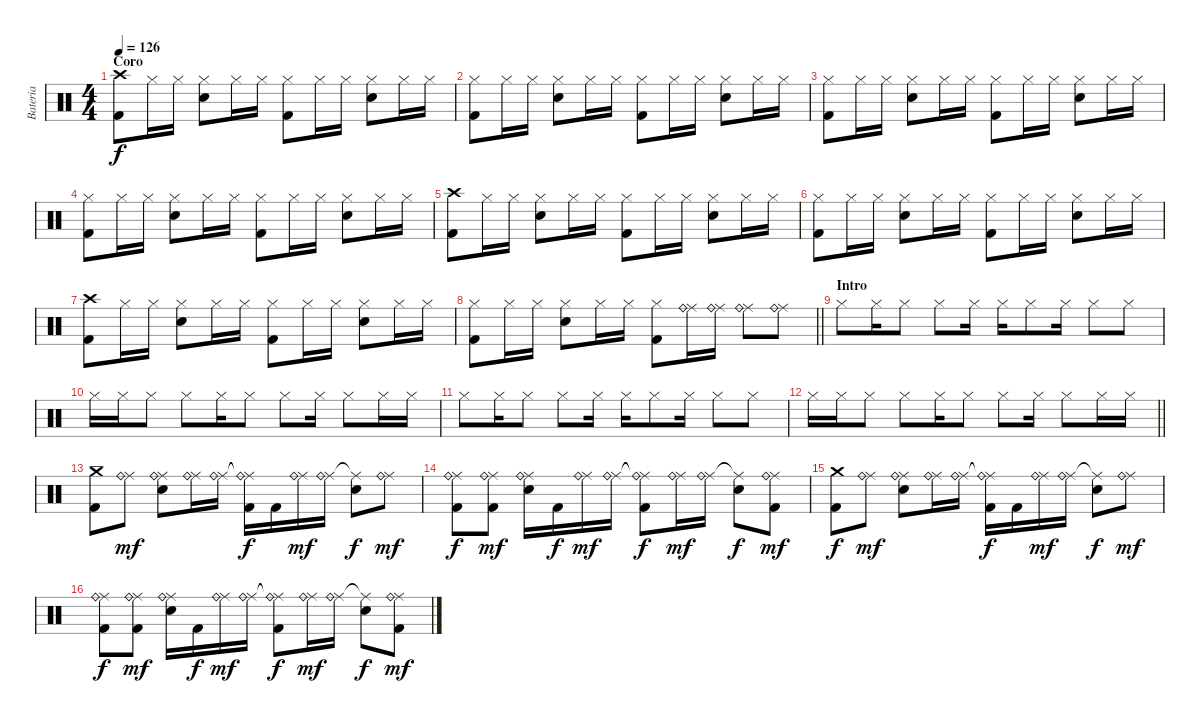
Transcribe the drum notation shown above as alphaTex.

\track ("Bateria" "Bateria") {instrument percussion}
\staff {score}
\articulation defaults
\ts (4 4)
\section ("" "Coro")
\tempo 126
\clef neutral
\ks c
("Crash high (hit)" "Kick (hit) 2").8{dy f} "Hi-Hat (closed)".16 "Hi-Hat (closed)".16 ("Hi-Hat (closed)" "Electric Snare (hit)").8 "Hi-Hat (closed)".16 "Hi-Hat (closed)".16 ("Hi-Hat (closed)" "Kick (hit) 2").8 "Hi-Hat (closed)".16 "Hi-Hat (closed)".16 ("Hi-Hat (closed)" "Electric Snare (hit)").8 "Hi-Hat (closed)".16 "Hi-Hat (closed)".16 |
("Hi-Hat (closed)" "Kick (hit) 2").8 "Hi-Hat (closed)".16 "Hi-Hat (closed)".16 ("Hi-Hat (closed)" "Electric Snare (hit)").8 "Hi-Hat (closed)".16 "Hi-Hat (closed)".16 ("Hi-Hat (closed)" "Kick (hit) 2").8 "Hi-Hat (closed)".16 "Hi-Hat (closed)".16 ("Hi-Hat (closed)" "Electric Snare (hit)").8 "Hi-Hat (closed)".16 "Hi-Hat (closed)".16 |
("Hi-Hat (closed)" "Kick (hit) 2").8 "Hi-Hat (closed)".16 "Hi-Hat (closed)".16 ("Hi-Hat (closed)" "Electric Snare (hit)").8 "Hi-Hat (closed)".16 "Hi-Hat (closed)".16 ("Hi-Hat (closed)" "Kick (hit) 2").8 "Hi-Hat (closed)".16 "Hi-Hat (closed)".16 ("Hi-Hat (closed)" "Electric Snare (hit)").8 "Hi-Hat (closed)".16 "Hi-Hat (closed)".16 |
("Hi-Hat (closed)" "Kick (hit) 2").8 "Hi-Hat (closed)".16 "Hi-Hat (closed)".16 ("Hi-Hat (closed)" "Electric Snare (hit)").8 "Hi-Hat (closed)".16 "Hi-Hat (closed)".16 ("Hi-Hat (closed)" "Kick (hit) 2").8 "Hi-Hat (closed)".16 "Hi-Hat (closed)".16 ("Hi-Hat (closed)" "Electric Snare (hit)").8 "Hi-Hat (closed)".16 "Hi-Hat (closed)".16 |
("Crash high (hit)" "Kick (hit) 2").8 "Hi-Hat (closed)".16 "Hi-Hat (closed)".16 ("Hi-Hat (closed)" "Electric Snare (hit)").8 "Hi-Hat (closed)".16 "Hi-Hat (closed)".16 ("Hi-Hat (closed)" "Kick (hit) 2").8 "Hi-Hat (closed)".16 "Hi-Hat (closed)".16 ("Hi-Hat (closed)" "Electric Snare (hit)").8 "Hi-Hat (closed)".16 "Hi-Hat (closed)".16 |
("Hi-Hat (closed)" "Kick (hit) 2").8 "Hi-Hat (closed)".16 "Hi-Hat (closed)".16 ("Hi-Hat (closed)" "Electric Snare (hit)").8 "Hi-Hat (closed)".16 "Hi-Hat (closed)".16 ("Hi-Hat (closed)" "Kick (hit) 2").8 "Hi-Hat (closed)".16 "Hi-Hat (closed)".16 ("Hi-Hat (closed)" "Electric Snare (hit)").8 "Hi-Hat (closed)".16 "Hi-Hat (closed)".16 |
("Crash high (hit)" "Kick (hit) 2").8 "Hi-Hat (closed)".16 "Hi-Hat (closed)".16 ("Hi-Hat (closed)" "Electric Snare (hit)").8 "Hi-Hat (closed)".16 "Hi-Hat (closed)".16 ("Hi-Hat (closed)" "Kick (hit) 2").8 "Hi-Hat (closed)".16 "Hi-Hat (closed)".16 ("Hi-Hat (closed)" "Electric Snare (hit)").8 "Hi-Hat (closed)".16 "Hi-Hat (closed)".16 |
\barLineRight lightlight
("Hi-Hat (closed)" "Kick (hit) 2").8 "Hi-Hat (closed)".16 "Hi-Hat (closed)".16 ("Hi-Hat (closed)" "Electric Snare (hit)").8 "Hi-Hat (closed)".16 "Hi-Hat (closed)".16 ("Hi-Hat (closed)" "Kick (hit) 2").8 ("Ride (middle)" "Ride (bell)").16 ("Ride (middle)" "Ride (bell)").16 ("Ride (middle)" "Ride (bell)").8 ("Ride (middle)" "Ride (bell)").8 |
\section ("" "Intro")
"Hi-Hat (closed)".8 "Hi-Hat (closed)".16 "Hi-Hat (closed)".8 "Hi-Hat (closed)".8 "Hi-Hat (closed)".16 "Hi-Hat (closed)".16 "Hi-Hat (closed)".8 "Hi-Hat (closed)".16 "Hi-Hat (closed)".8 "Hi-Hat (closed)".8 |
"Hi-Hat (closed)".16 "Hi-Hat (closed)".16 "Hi-Hat (closed)".8 "Hi-Hat (closed)".8 "Hi-Hat (closed)".16 "Hi-Hat (closed)".8 "Hi-Hat (closed)".8 "Hi-Hat (closed)".16 "Hi-Hat (closed)".8 "Hi-Hat (closed)".16 "Hi-Hat (closed)".16 |
"Hi-Hat (closed)".8 "Hi-Hat (closed)".16 "Hi-Hat (closed)".8 "Hi-Hat (closed)".8 "Hi-Hat (closed)".16 "Hi-Hat (closed)".16 "Hi-Hat (closed)".8 "Hi-Hat (closed)".16 "Hi-Hat (closed)".8 "Hi-Hat (closed)".8 |
\barLineRight lightlight "Hi-Hat (closed)".16 "Hi-Hat (closed)".16 "Hi-Hat (closed)".8 "Hi-Hat (closed)".8 "Hi-Hat (closed)".16 "Hi-Hat (closed)".8 "Hi-Hat (closed)".8 "Hi-Hat (closed)".16 "Hi-Hat (closed)".8 "Hi-Hat (closed)".16 "Hi-Hat (closed)".16
|
\section ("" "__")
("Crash medium (hit)" "Kick (hit) 2").8 ("Ride (middle)" "Ride (bell)").8{dy mf} ("Ride (middle)" "Ride (bell)" "Electric Snare (hit)").8 ("Ride (middle)" "Ride (bell)").16 ("Ride (middle)" "Ride (bell)").16 ("Ride (middle)"{t} "Ride (bell)"{t} "Kick (hit) 2").16{dy f} "Kick (hit) 2".16 ("Ride (middle)" "Ride (bell)").16{dy mf} ("Ride (middle)" "Ride (bell)").16 ("Ride (middle)"{t} "Electric Snare (hit)").8{dy f} ("Ride (middle)" "Ride (bell)").8{dy mf} |
("Ride (middle)" "Ride (bell)" "Kick (hit) 2").8{dy f} ("Ride (middle)" "Ride (bell)" "Kick (hit) 2").8{dy mf} ("Ride (middle)" "Ride (bell)" "Electric Snare (hit)").16 "Kick (hit) 2".16{dy f} ("Ride (middle)" "Ride (bell)").16{dy mf} ("Ride (middle)" "Ride (bell)").16 ("Ride (middle)"{t} "Ride (bell)"{t} "Kick (hit) 2").8{dy f} ("Ride (middle)" "Ride (bell)").16{dy mf} ("Ride (middle)" "Ride (bell)").16 ("Ride (middle)"{t} "Electric Snare (hit)").8{dy f} ("Ride (middle)" "Ride (bell)" "Kick (hit) 2").8{dy mf} |
("Crash medium (hit)" "Kick (hit) 2").8{dy f} ("Ride (middle)" "Ride (bell)").8{dy mf} ("Ride (middle)" "Ride (bell)" "Electric Snare (hit)").8 ("Ride (middle)" "Ride (bell)").16 ("Ride (middle)" "Ride (bell)").16 ("Ride (middle)"{t} "Ride (bell)"{t} "Kick (hit) 2").16{dy f} "Kick (hit) 2".16 ("Ride (middle)" "Ride (bell)").16{dy mf} ("Ride (middle)" "Ride (bell)").16 ("Ride (middle)"{t} "Electric Snare (hit)").8{dy f} ("Ride (middle)" "Ride (bell)").8{dy mf} |
("Ride (middle)" "Ride (bell)" "Kick (hit) 2").8{dy f} ("Ride (middle)" "Ride (bell)" "Kick (hit) 2").8{dy mf} ("Ride (middle)" "Ride (bell)" "Electric Snare (hit)").16 "Kick (hit) 2".16{dy f} ("Ride (middle)" "Ride (bell)").16{dy mf} ("Ride (middle)" "Ride (bell)").16 ("Ride (middle)"{t} "Ride (bell)"{t} "Kick (hit) 2").8{dy f} ("Ride (middle)" "Ride (bell)").16{dy mf} ("Ride (middle)" "Ride (bell)").16 ("Ride (middle)"{t} "Electric Snare (hit)").8{dy f} ("Ride (middle)" "Ride (bell)" "Kick (hit) 2").8{dy mf}
